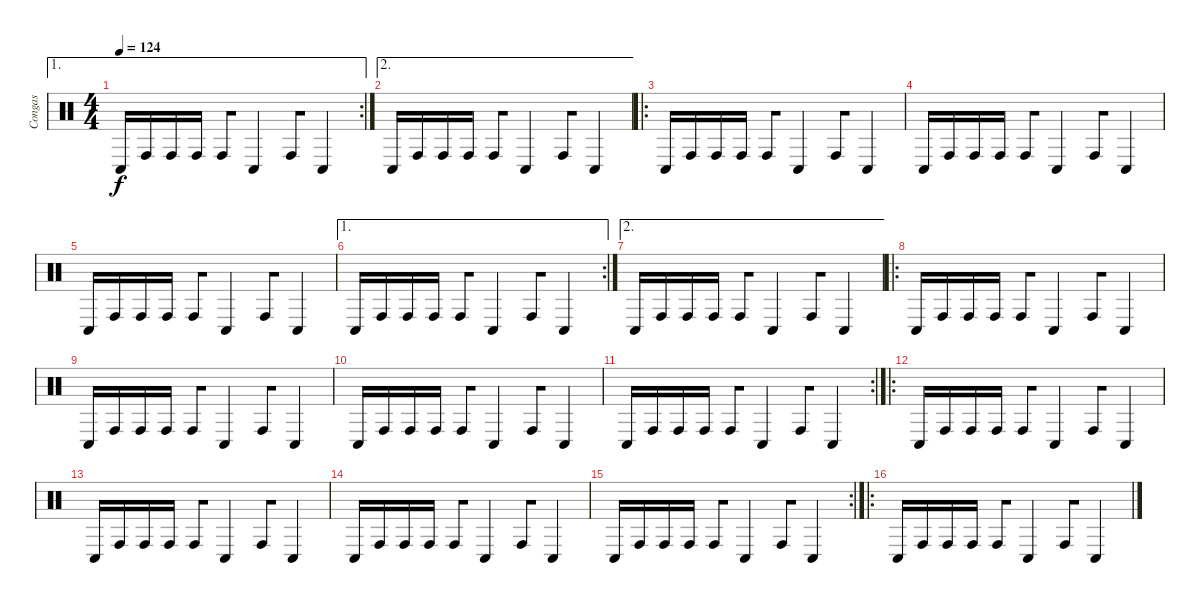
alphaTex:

\track ("Congas" "Congas") {instrument percussion bank 2}
\staff {score}
\articulation defaults
\ae 1
\rc 2
\ts (4 4)
\tempo 124
\clef neutral
\ks c "Conga low (hit)".16{dy f} "Conga high (hit)".16 "Conga high (hit)".16 "Conga high (hit)".16 "Conga high (hit)".8{beam merge} "Conga low (hit)".4 "Conga high (hit)".8{beam merge} "Conga low (hit)".4
|
\ae 2 "Conga low (hit)".16 "Conga high (hit)".16 "Conga high (hit)".16 "Conga high (hit)".16 "Conga high (hit)".8{beam merge} "Conga low (hit)".4 "Conga high (hit)".8{beam merge} "Conga low (hit)".4
|
\ro "Conga low (hit)".16 "Conga high (hit)".16 "Conga high (hit)".16 "Conga high (hit)".16 "Conga high (hit)".8{beam merge} "Conga low (hit)".4 "Conga high (hit)".8{beam merge} "Conga low (hit)".4
|
"Conga low (hit)".16 "Conga high (hit)".16 "Conga high (hit)".16 "Conga high (hit)".16 "Conga high (hit)".8{beam merge} "Conga low (hit)".4 "Conga high (hit)".8{beam merge} "Conga low (hit)".4 |
"Conga low (hit)".16 "Conga high (hit)".16 "Conga high (hit)".16 "Conga high (hit)".16 "Conga high (hit)".8{beam merge} "Conga low (hit)".4 "Conga high (hit)".8{beam merge} "Conga low (hit)".4 |
\ae 1
\rc 2 "Conga low (hit)".16 "Conga high (hit)".16 "Conga high (hit)".16 "Conga high (hit)".16 "Conga high (hit)".8{beam merge} "Conga low (hit)".4 "Conga high (hit)".8{beam merge} "Conga low (hit)".4
|
\ae 2 "Conga low (hit)".16 "Conga high (hit)".16 "Conga high (hit)".16 "Conga high (hit)".16 "Conga high (hit)".8{beam merge} "Conga low (hit)".4 "Conga high (hit)".8{beam merge} "Conga low (hit)".4
|
\ro "Conga low (hit)".16 "Conga high (hit)".16 "Conga high (hit)".16 "Conga high (hit)".16 "Conga high (hit)".8{beam merge} "Conga low (hit)".4 "Conga high (hit)".8{beam merge} "Conga low (hit)".4
|
"Conga low (hit)".16 "Conga high (hit)".16 "Conga high (hit)".16 "Conga high (hit)".16 "Conga high (hit)".8{beam merge} "Conga low (hit)".4 "Conga high (hit)".8{beam merge} "Conga low (hit)".4 |
"Conga low (hit)".16 "Conga high (hit)".16 "Conga high (hit)".16 "Conga high (hit)".16 "Conga high (hit)".8{beam merge} "Conga low (hit)".4 "Conga high (hit)".8{beam merge} "Conga low (hit)".4 |
\rc 2 "Conga low (hit)".16 "Conga high (hit)".16 "Conga high (hit)".16 "Conga high (hit)".16 "Conga high (hit)".8{beam merge} "Conga low (hit)".4 "Conga high (hit)".8{beam merge} "Conga low (hit)".4
|
\ro "Conga low (hit)".16 "Conga high (hit)".16 "Conga high (hit)".16 "Conga high (hit)".16 "Conga high (hit)".8{beam merge} "Conga low (hit)".4 "Conga high (hit)".8{beam merge} "Conga low (hit)".4
|
"Conga low (hit)".16 "Conga high (hit)".16 "Conga high (hit)".16 "Conga high (hit)".16 "Conga high (hit)".8{beam merge} "Conga low (hit)".4 "Conga high (hit)".8{beam merge} "Conga low (hit)".4 |
"Conga low (hit)".16 "Conga high (hit)".16 "Conga high (hit)".16 "Conga high (hit)".16 "Conga high (hit)".8{beam merge} "Conga low (hit)".4 "Conga high (hit)".8{beam merge} "Conga low (hit)".4 |
\rc 2 "Conga low (hit)".16 "Conga high (hit)".16 "Conga high (hit)".16 "Conga high (hit)".16 "Conga high (hit)".8{beam merge} "Conga low (hit)".4 "Conga high (hit)".8{beam merge} "Conga low (hit)".4
|
\ro "Conga low (hit)".16 "Conga high (hit)".16 "Conga high (hit)".16 "Conga high (hit)".16 "Conga high (hit)".8{beam merge} "Conga low (hit)".4 "Conga high (hit)".8{beam merge} "Conga low (hit)".4
